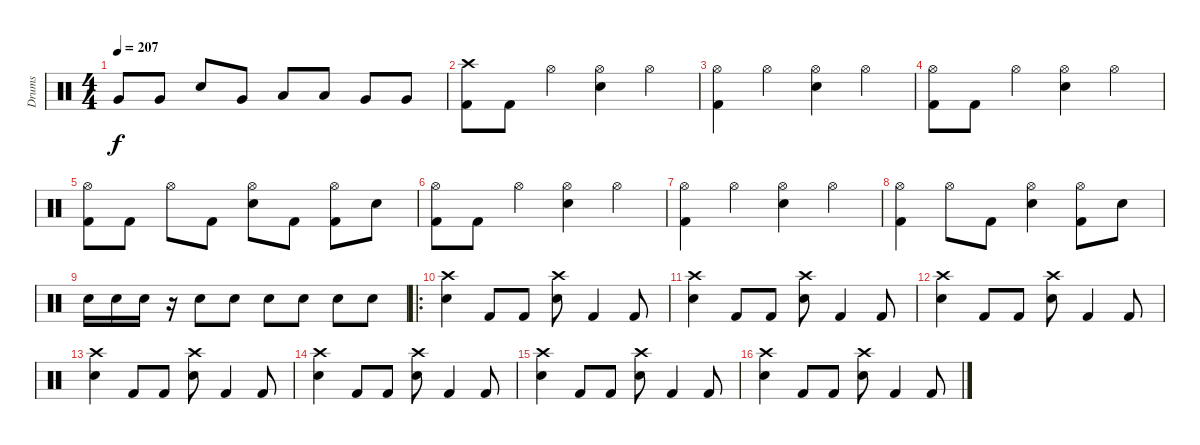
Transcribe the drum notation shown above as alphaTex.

\track ("Drums" "Drums") {instrument percussion}
\staff {score}
\articulation defaults
\ts (4 4)
\tempo 207
\clef neutral
\ks c "Very Low Tom (hit)".8{dy f} "Very Low Tom (hit)".8 "Electric Snare (hit)".8 "Very Low Tom (hit)".8 "Low Floor Tom (hit)".8 "Low Floor Tom (hit)".8 "Very Low Tom (hit)".8 "Very Low Tom (hit)".8
|
("Crash high (hit)" "Kick (hit) 2").8 "Kick (hit) 2".8 "Hi-Hat (open)".4 ("Hi-Hat (open)" "Electric Snare (hit)").4 "Hi-Hat (open)".4 |
("Hi-Hat (open)" "Kick (hit) 2").4 "Hi-Hat (open)".4 ("Hi-Hat (open)" "Electric Snare (hit)").4 "Hi-Hat (open)".4 |
("Hi-Hat (open)" "Kick (hit) 2").8 "Kick (hit) 2".8 "Hi-Hat (open)".4 ("Hi-Hat (open)" "Electric Snare (hit)").4 "Hi-Hat (open)".4 |
("Hi-Hat (open)" "Kick (hit) 2").8 "Kick (hit) 2".8 "Hi-Hat (open)".8 "Kick (hit) 2".8 ("Hi-Hat (open)" "Electric Snare (hit)").8 "Kick (hit) 2".8 ("Hi-Hat (open)" "Kick (hit) 2").8 "Electric Snare (hit)".8 |
("Hi-Hat (open)" "Kick (hit) 2").8 "Kick (hit) 2".8 "Hi-Hat (open)".4 ("Hi-Hat (open)" "Electric Snare (hit)").4 "Hi-Hat (open)".4 |
("Hi-Hat (open)" "Kick (hit) 2").4 "Hi-Hat (open)".4 ("Hi-Hat (open)" "Electric Snare (hit)").4 "Hi-Hat (open)".4 |
("Hi-Hat (open)" "Kick (hit) 2").4 "Hi-Hat (open)".8 "Kick (hit) 2".8 ("Hi-Hat (open)" "Electric Snare (hit)").4 ("Hi-Hat (open)" "Kick (hit) 2").8 "Electric Snare (hit)".8 |
"Electric Snare (hit)".16 "Electric Snare (hit)".16 "Electric Snare (hit)".16 r.16 "Electric Snare (hit)".8 "Electric Snare (hit)".8 "Electric Snare (hit)".8 "Electric Snare (hit)".8 "Electric Snare (hit)".8 "Electric Snare (hit)".8 |
\ro
("Crash high (hit)" "Electric Snare (hit)").4 "Kick (hit) 2".8 "Kick (hit) 2".8 ("Crash high (hit)" "Electric Snare (hit)").8 "Kick (hit) 2".4 "Kick (hit) 2".8 |
("Crash high (hit)" "Electric Snare (hit)").4 "Kick (hit) 2".8 "Kick (hit) 2".8 ("Crash high (hit)" "Electric Snare (hit)").8 "Kick (hit) 2".4 "Kick (hit) 2".8 |
("Crash high (hit)" "Electric Snare (hit)").4 "Kick (hit) 2".8 "Kick (hit) 2".8 ("Crash high (hit)" "Electric Snare (hit)").8 "Kick (hit) 2".4 "Kick (hit) 2".8 |
("Crash high (hit)" "Electric Snare (hit)").4 "Kick (hit) 2".8 "Kick (hit) 2".8 ("Crash high (hit)" "Electric Snare (hit)").8 "Kick (hit) 2".4 "Kick (hit) 2".8 |
("Crash high (hit)" "Electric Snare (hit)").4 "Kick (hit) 2".8 "Kick (hit) 2".8 ("Crash high (hit)" "Electric Snare (hit)").8 "Kick (hit) 2".4 "Kick (hit) 2".8 |
("Crash high (hit)" "Electric Snare (hit)").4 "Kick (hit) 2".8 "Kick (hit) 2".8 ("Crash high (hit)" "Electric Snare (hit)").8 "Kick (hit) 2".4 "Kick (hit) 2".8 |
("Crash high (hit)" "Electric Snare (hit)").4 "Kick (hit) 2".8 "Kick (hit) 2".8 ("Crash high (hit)" "Electric Snare (hit)").8 "Kick (hit) 2".4 "Kick (hit) 2".8
